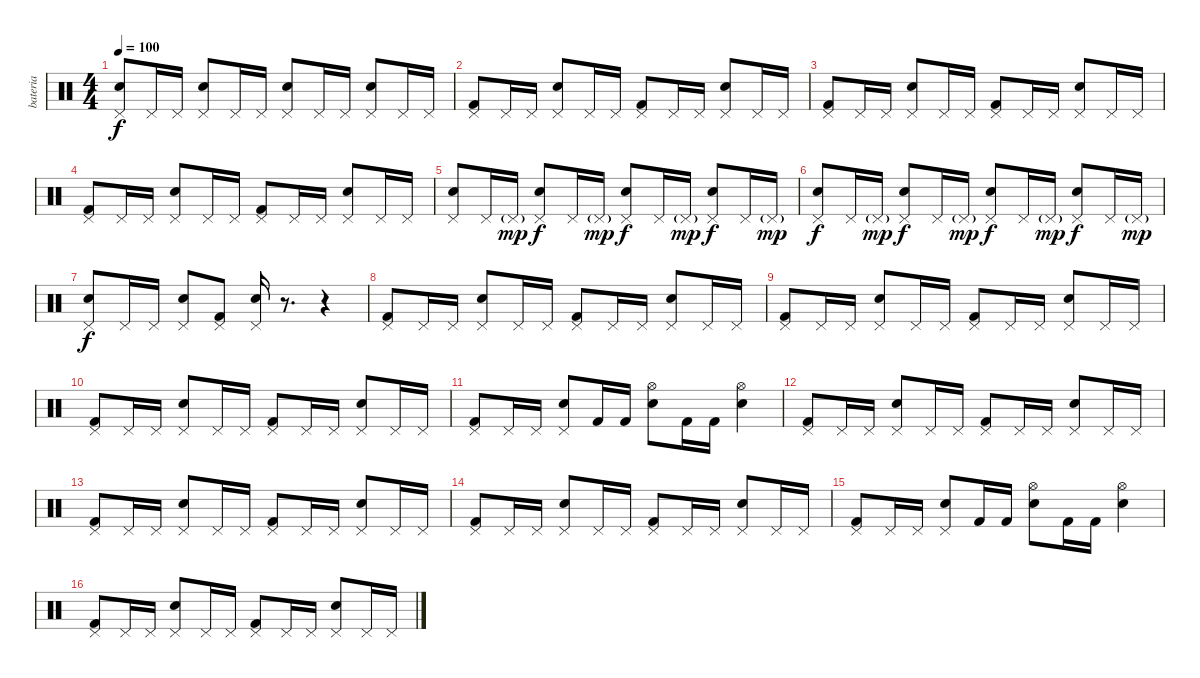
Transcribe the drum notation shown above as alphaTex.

\track ("bateria" "bateria") {instrument percussion}
\staff {score}
\articulation defaults
\ts (4 4)
\tempo 100
\clef neutral
\ks c
("Pedal Hi-Hat (hit)" "Snare (hit) 2").8{dy f} "Pedal Hi-Hat (hit)".16 "Pedal Hi-Hat (hit)".16 ("Pedal Hi-Hat (hit)" "Snare (hit) 2").8 "Pedal Hi-Hat (hit)".16 "Pedal Hi-Hat (hit)".16 ("Pedal Hi-Hat (hit)" "Snare (hit) 2").8 "Pedal Hi-Hat (hit)".16 "Pedal Hi-Hat (hit)".16 ("Pedal Hi-Hat (hit)" "Snare (hit) 2").8 "Pedal Hi-Hat (hit)".16 "Pedal Hi-Hat (hit)".16 |
("Pedal Hi-Hat (hit)" "Kick (hit) 2").8 "Pedal Hi-Hat (hit)".16 "Pedal Hi-Hat (hit)".16 ("Pedal Hi-Hat (hit)" "Snare (hit) 2").8 "Pedal Hi-Hat (hit)".16 "Pedal Hi-Hat (hit)".16 ("Pedal Hi-Hat (hit)" "Kick (hit) 2").8 "Pedal Hi-Hat (hit)".16 "Pedal Hi-Hat (hit)".16 ("Pedal Hi-Hat (hit)" "Snare (hit) 2").8 "Pedal Hi-Hat (hit)".16 "Pedal Hi-Hat (hit)".16 |
("Pedal Hi-Hat (hit)" "Kick (hit) 2").8 "Pedal Hi-Hat (hit)".16 "Pedal Hi-Hat (hit)".16 ("Pedal Hi-Hat (hit)" "Snare (hit) 2").8 "Pedal Hi-Hat (hit)".16 "Pedal Hi-Hat (hit)".16 ("Pedal Hi-Hat (hit)" "Kick (hit) 2").8 "Pedal Hi-Hat (hit)".16 "Pedal Hi-Hat (hit)".16 ("Pedal Hi-Hat (hit)" "Snare (hit) 2").8 "Pedal Hi-Hat (hit)".16 "Pedal Hi-Hat (hit)".16 |
("Pedal Hi-Hat (hit)" "Kick (hit) 2").8 "Pedal Hi-Hat (hit)".16 "Pedal Hi-Hat (hit)".16 ("Pedal Hi-Hat (hit)" "Snare (hit) 2").8 "Pedal Hi-Hat (hit)".16 "Pedal Hi-Hat (hit)".16 ("Pedal Hi-Hat (hit)" "Kick (hit) 2").8 "Pedal Hi-Hat (hit)".16 "Pedal Hi-Hat (hit)".16 ("Pedal Hi-Hat (hit)" "Snare (hit) 2").8 "Pedal Hi-Hat (hit)".16 "Pedal Hi-Hat (hit)".16 |
("Pedal Hi-Hat (hit)" "Snare (hit) 2").8 "Pedal Hi-Hat (hit)".16 "Pedal Hi-Hat (hit)"{g}.16{dy mp} ("Pedal Hi-Hat (hit)" "Snare (hit) 2").8{dy f} "Pedal Hi-Hat (hit)".16 "Pedal Hi-Hat (hit)"{g}.16{dy mp} ("Pedal Hi-Hat (hit)" "Snare (hit) 2").8{dy f} "Pedal Hi-Hat (hit)".16 "Pedal Hi-Hat (hit)"{g}.16{dy mp} ("Pedal Hi-Hat (hit)" "Snare (hit) 2").8{dy f} "Pedal Hi-Hat (hit)".16 "Pedal Hi-Hat (hit)"{g}.16{dy mp} |
("Pedal Hi-Hat (hit)" "Snare (hit) 2").8{dy f} "Pedal Hi-Hat (hit)".16 "Pedal Hi-Hat (hit)"{g}.16{dy mp} ("Pedal Hi-Hat (hit)" "Snare (hit) 2").8{dy f} "Pedal Hi-Hat (hit)".16 "Pedal Hi-Hat (hit)"{g}.16{dy mp} ("Pedal Hi-Hat (hit)" "Snare (hit) 2").8{dy f} "Pedal Hi-Hat (hit)".16 "Pedal Hi-Hat (hit)"{g}.16{dy mp} ("Pedal Hi-Hat (hit)" "Snare (hit) 2").8{dy f} "Pedal Hi-Hat (hit)".16 "Pedal Hi-Hat (hit)"{g}.16{dy mp} |
("Pedal Hi-Hat (hit)" "Snare (hit) 2").8{dy f} "Pedal Hi-Hat (hit)".16 "Pedal Hi-Hat (hit)".16 ("Pedal Hi-Hat (hit)" "Snare (hit) 2").8 ("Pedal Hi-Hat (hit)" "Kick (hit) 2").8 ("Pedal Hi-Hat (hit)" "Snare (hit) 2").16 r.8{d} r.4 |
\section ("" "")
("Pedal Hi-Hat (hit)" "Kick (hit) 2").8 "Pedal Hi-Hat (hit)".16 "Pedal Hi-Hat (hit)".16 ("Pedal Hi-Hat (hit)" "Snare (hit) 2").8 "Pedal Hi-Hat (hit)".16 "Pedal Hi-Hat (hit)".16 ("Pedal Hi-Hat (hit)" "Kick (hit) 2").8 "Pedal Hi-Hat (hit)".16 "Pedal Hi-Hat (hit)".16 ("Pedal Hi-Hat (hit)" "Snare (hit) 2").8 "Pedal Hi-Hat (hit)".16 "Pedal Hi-Hat (hit)".16 |
("Pedal Hi-Hat (hit)" "Kick (hit) 2").8 "Pedal Hi-Hat (hit)".16 "Pedal Hi-Hat (hit)".16 ("Pedal Hi-Hat (hit)" "Snare (hit) 2").8 "Pedal Hi-Hat (hit)".16 "Pedal Hi-Hat (hit)".16 ("Pedal Hi-Hat (hit)" "Kick (hit) 2").8 "Pedal Hi-Hat (hit)".16 "Pedal Hi-Hat (hit)".16 ("Pedal Hi-Hat (hit)" "Snare (hit) 2").8 "Pedal Hi-Hat (hit)".16 "Pedal Hi-Hat (hit)".16 |
("Pedal Hi-Hat (hit)" "Kick (hit) 2").8 "Pedal Hi-Hat (hit)".16 "Pedal Hi-Hat (hit)".16 ("Pedal Hi-Hat (hit)" "Snare (hit) 2").8 "Pedal Hi-Hat (hit)".16 "Pedal Hi-Hat (hit)".16 ("Pedal Hi-Hat (hit)" "Kick (hit) 2").8 "Pedal Hi-Hat (hit)".16 "Pedal Hi-Hat (hit)".16 ("Pedal Hi-Hat (hit)" "Snare (hit) 2").8 "Pedal Hi-Hat (hit)".16 "Pedal Hi-Hat (hit)".16 |
("Pedal Hi-Hat (hit)" "Kick (hit) 2").8 "Pedal Hi-Hat (hit)".16 "Pedal Hi-Hat (hit)".16 ("Pedal Hi-Hat (hit)" "Snare (hit) 2").8 "Kick (hit) 2".16 "Kick (hit) 2".16 ("Hi-Hat (open)" "Snare (hit) 2").8 "Kick (hit) 2".16 "Kick (hit) 2".16 ("Hi-Hat (open)" "Snare (hit) 2").4 |
("Pedal Hi-Hat (hit)" "Kick (hit) 2").8 "Pedal Hi-Hat (hit)".16 "Pedal Hi-Hat (hit)".16 ("Pedal Hi-Hat (hit)" "Snare (hit) 2").8 "Pedal Hi-Hat (hit)".16 "Pedal Hi-Hat (hit)".16 ("Pedal Hi-Hat (hit)" "Kick (hit) 2").8 "Pedal Hi-Hat (hit)".16 "Pedal Hi-Hat (hit)".16 ("Pedal Hi-Hat (hit)" "Snare (hit) 2").8 "Pedal Hi-Hat (hit)".16 "Pedal Hi-Hat (hit)".16 |
("Pedal Hi-Hat (hit)" "Kick (hit) 2").8 "Pedal Hi-Hat (hit)".16 "Pedal Hi-Hat (hit)".16 ("Pedal Hi-Hat (hit)" "Snare (hit) 2").8 "Pedal Hi-Hat (hit)".16 "Pedal Hi-Hat (hit)".16 ("Pedal Hi-Hat (hit)" "Kick (hit) 2").8 "Pedal Hi-Hat (hit)".16 "Pedal Hi-Hat (hit)".16 ("Pedal Hi-Hat (hit)" "Snare (hit) 2").8 "Pedal Hi-Hat (hit)".16 "Pedal Hi-Hat (hit)".16 |
("Pedal Hi-Hat (hit)" "Kick (hit) 2").8 "Pedal Hi-Hat (hit)".16 "Pedal Hi-Hat (hit)".16 ("Pedal Hi-Hat (hit)" "Snare (hit) 2").8 "Pedal Hi-Hat (hit)".16 "Pedal Hi-Hat (hit)".16 ("Pedal Hi-Hat (hit)" "Kick (hit) 2").8 "Pedal Hi-Hat (hit)".16 "Pedal Hi-Hat (hit)".16 ("Pedal Hi-Hat (hit)" "Snare (hit) 2").8 "Pedal Hi-Hat (hit)".16 "Pedal Hi-Hat (hit)".16 |
("Pedal Hi-Hat (hit)" "Kick (hit) 2").8 "Pedal Hi-Hat (hit)".16 "Pedal Hi-Hat (hit)".16 ("Pedal Hi-Hat (hit)" "Snare (hit) 2").8 "Kick (hit) 2".16 "Kick (hit) 2".16 ("Hi-Hat (open)" "Snare (hit) 2").8 "Kick (hit) 2".16 "Kick (hit) 2".16 ("Hi-Hat (open)" "Snare (hit) 2").4 |
\section ("" "")
("Pedal Hi-Hat (hit)" "Kick (hit) 2").8 "Pedal Hi-Hat (hit)".16 "Pedal Hi-Hat (hit)".16 ("Pedal Hi-Hat (hit)" "Snare (hit) 2").8 "Pedal Hi-Hat (hit)".16 "Pedal Hi-Hat (hit)".16 ("Pedal Hi-Hat (hit)" "Kick (hit) 2").8 "Pedal Hi-Hat (hit)".16 "Pedal Hi-Hat (hit)".16 ("Pedal Hi-Hat (hit)" "Snare (hit) 2").8 "Pedal Hi-Hat (hit)".16 "Pedal Hi-Hat (hit)".16
